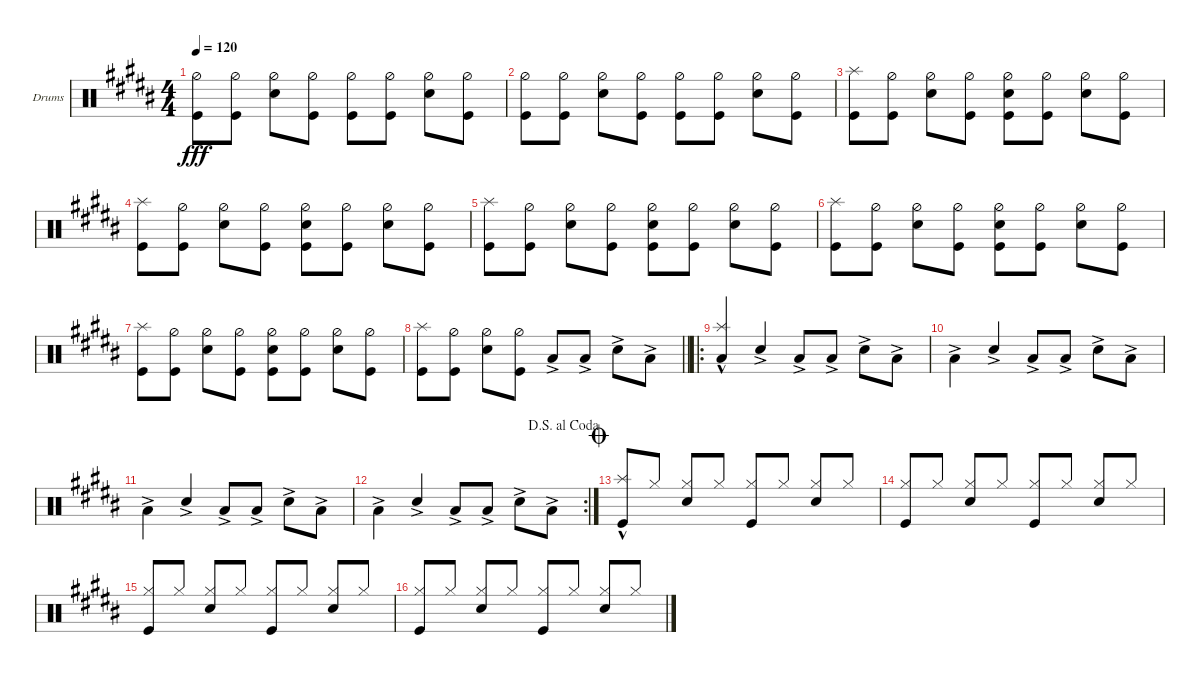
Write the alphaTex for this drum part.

\defaultSystemsLayout 4
\bracketExtendMode groupsimilarinstruments
\firstSystemTrackNameOrientation horizontal
\otherSystemsTrackNameOrientation horizontal
\track ("Drumkit" "Drums") {instrument percussion}
\staff {score}
\articulation defaults
\ts (4 4)
\tempo 120
\clef neutral
\ks b
("Kick (hit)" "Hi-Hat (half)").8{dy fff} ("Kick (hit)" "Hi-Hat (half)").8 ("Snare (hit) 2" "Hi-Hat (half)").8 ("Kick (hit)" "Hi-Hat (half)").8 ("Kick (hit)" "Hi-Hat (half)").8 ("Kick (hit)" "Hi-Hat (half)").8 ("Snare (hit) 2" "Hi-Hat (half)").8 ("Kick (hit)" "Hi-Hat (half)").8 |
("Kick (hit)" "Hi-Hat (half)").8 ("Kick (hit)" "Hi-Hat (half)").8 ("Snare (hit) 2" "Hi-Hat (half)").8 ("Kick (hit)" "Hi-Hat (half)").8 ("Kick (hit)" "Hi-Hat (half)").8 ("Kick (hit)" "Hi-Hat (half)").8 ("Snare (hit) 2" "Hi-Hat (half)").8 ("Kick (hit)" "Hi-Hat (half)").8 |
("Kick (hit)" "Splash (hit)").8 ("Kick (hit)" "Hi-Hat (half)").8 ("Snare (hit) 2" "Hi-Hat (half)").8 ("Kick (hit)" "Hi-Hat (half)").8 ("Kick (hit)" "Hi-Hat (half)" "Snare (hit) 2").8 ("Kick (hit)" "Hi-Hat (half)").8 ("Snare (hit) 2" "Hi-Hat (half)").8 ("Kick (hit)" "Hi-Hat (half)").8 |
("Kick (hit)" "Splash (hit)").8 ("Kick (hit)" "Hi-Hat (half)").8 ("Snare (hit) 2" "Hi-Hat (half)").8 ("Kick (hit)" "Hi-Hat (half)").8 ("Kick (hit)" "Hi-Hat (half)" "Snare (hit) 2").8 ("Kick (hit)" "Hi-Hat (half)").8 ("Snare (hit) 2" "Hi-Hat (half)").8 ("Kick (hit)" "Hi-Hat (half)").8 |
("Kick (hit)" "Splash (hit)").8 ("Kick (hit)" "Hi-Hat (half)").8 ("Snare (hit) 2" "Hi-Hat (half)").8 ("Kick (hit)" "Hi-Hat (half)").8 ("Kick (hit)" "Hi-Hat (half)" "Snare (hit) 2").8 ("Kick (hit)" "Hi-Hat (half)").8 ("Snare (hit) 2" "Hi-Hat (half)").8 ("Kick (hit)" "Hi-Hat (half)").8 |
("Kick (hit)" "Splash (hit)").8 ("Kick (hit)" "Hi-Hat (half)").8 ("Snare (hit) 2" "Hi-Hat (half)").8 ("Kick (hit)" "Hi-Hat (half)").8 ("Kick (hit)" "Hi-Hat (half)" "Snare (hit) 2").8 ("Kick (hit)" "Hi-Hat (half)").8 ("Snare (hit) 2" "Hi-Hat (half)").8 ("Kick (hit)" "Hi-Hat (half)").8 |
("Kick (hit)" "Splash (hit)").8 ("Kick (hit)" "Hi-Hat (half)").8 ("Snare (hit) 2" "Hi-Hat (half)").8 ("Kick (hit)" "Hi-Hat (half)").8 ("Kick (hit)" "Hi-Hat (half)" "Snare (hit) 2").8 ("Kick (hit)" "Hi-Hat (half)").8 ("Snare (hit) 2" "Hi-Hat (half)").8 ("Kick (hit)" "Hi-Hat (half)").8 |
\barLineRight lightlight
("Kick (hit)" "Splash (hit)").8 ("Kick (hit)" "Hi-Hat (half)").8 ("Snare (hit) 2" "Hi-Hat (half)").8 ("Kick (hit)" "Hi-Hat (half)").8 "Low Tom (hit)"{ac}.8 "Low Tom (hit)"{ac}.8 "Snare (hit) 2"{ac}.8 "Low Tom (hit)"{ac}.8 |
\ro
("Low Tom (hit)"{hac} "Splash (hit)").4 "Snare (hit) 2"{ac}.4{beam invert} "Low Tom (hit)"{ac}.8 "Low Tom (hit)"{ac}.8 "Snare (hit) 2"{ac}.8 "Low Tom (hit)"{ac}.8 |
"Low Tom (hit)"{ac}.4 "Snare (hit) 2"{ac}.4{beam invert} "Low Tom (hit)"{ac}.8 "Low Tom (hit)"{ac}.8 "Snare (hit) 2"{ac}.8 "Low Tom (hit)"{ac}.8 |
"Low Tom (hit)"{ac}.4 "Snare (hit) 2"{ac}.4{beam invert} "Low Tom (hit)"{ac}.8 "Low Tom (hit)"{ac}.8 "Snare (hit) 2"{ac}.8 "Low Tom (hit)"{ac}.8 |
\rc 2
\jump dalsegnoalcoda "Low Tom (hit)"{ac}.4 "Snare (hit) 2"{ac}.4{beam invert} "Low Tom (hit)"{ac}.8 "Low Tom (hit)"{ac}.8 "Snare (hit) 2"{ac}.8 "Low Tom (hit)"{ac}.8
|
\jump coda
("Kick (hit)" "Splash (hit)"{hac}).8 "Hi-Hat (closed)".8 ("Hi-Hat (closed)" "Snare (hit) 2").8{beam invert} "Hi-Hat (closed)".8 ("Hi-Hat (closed)" "Kick (hit)").8{beam invert} "Hi-Hat (closed)".8 ("Hi-Hat (closed)" "Snare (hit) 2").8{beam invert} "Hi-Hat (closed)".8 |
("Hi-Hat (closed)" "Kick (hit)").8{beam invert} "Hi-Hat (closed)".8 ("Hi-Hat (closed)" "Snare (hit) 2").8{beam invert} "Hi-Hat (closed)".8 ("Hi-Hat (closed)" "Kick (hit)").8{beam invert} "Hi-Hat (closed)".8 ("Hi-Hat (closed)" "Snare (hit) 2").8{beam invert} "Hi-Hat (closed)".8 |
("Hi-Hat (closed)" "Kick (hit)").8{beam invert} "Hi-Hat (closed)".8 ("Hi-Hat (closed)" "Snare (hit) 2").8{beam invert} "Hi-Hat (closed)".8 ("Hi-Hat (closed)" "Kick (hit)").8{beam invert} "Hi-Hat (closed)".8 ("Hi-Hat (closed)" "Snare (hit) 2").8{beam invert} "Hi-Hat (closed)".8 |
("Hi-Hat (closed)" "Kick (hit)").8{beam invert} "Hi-Hat (closed)".8 ("Hi-Hat (closed)" "Snare (hit) 2").8{beam invert} "Hi-Hat (closed)".8 ("Hi-Hat (closed)" "Kick (hit)").8{beam invert} "Hi-Hat (closed)".8 ("Hi-Hat (closed)" "Snare (hit) 2").8{beam invert} "Hi-Hat (closed)".8
